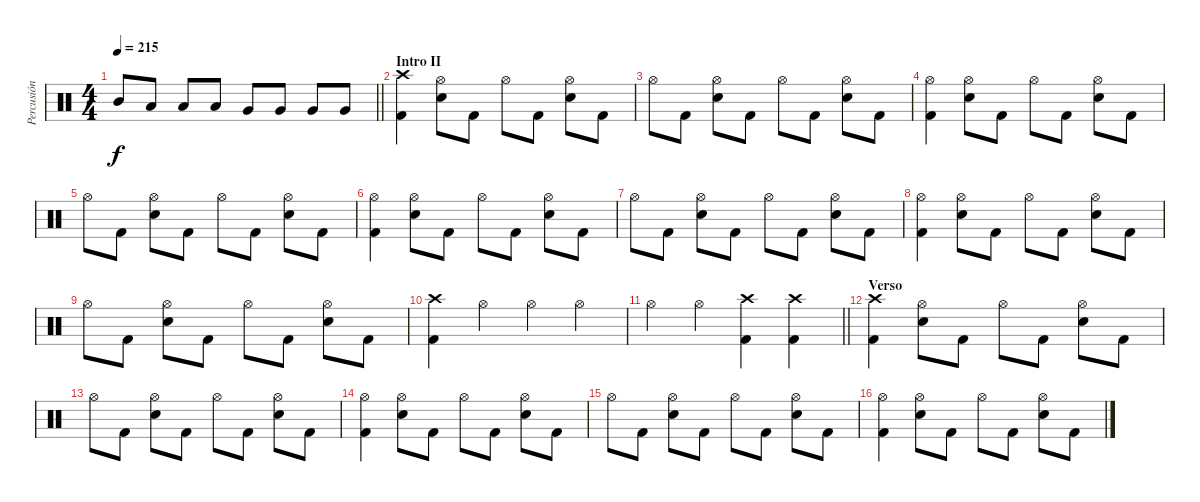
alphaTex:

\track ("Percusión" "Percusión") {instrument percussion}
\staff {score}
\articulation defaults
\ts (4 4)
\tempo 215
\clef neutral
\barLineRight lightlight
\ks c "Mid Tom (hit)".8{dy f} "Low Tom (hit)".8 "Low Tom (hit)".8 "Low Tom (hit)".8 "Very Low Tom (hit)".8 "Very Low Tom (hit)".8 "Very Low Tom (hit)".8 "Very Low Tom (hit)".8
|
\section ("" "Intro II")
("Crash high (hit)" "Kick (hit) 2").4 ("Hi-Hat (open)" "Electric Snare (hit)").8 "Kick (hit) 2".8 "Hi-Hat (open)".8 "Kick (hit) 2".8 ("Hi-Hat (open)" "Electric Snare (hit)").8 "Kick (hit) 2".8 |
"Hi-Hat (open)".8 "Kick (hit) 2".8 ("Hi-Hat (open)" "Electric Snare (hit)").8 "Kick (hit) 2".8 "Hi-Hat (open)".8 "Kick (hit) 2".8 ("Hi-Hat (open)" "Electric Snare (hit)").8 "Kick (hit) 2".8 |
("Hi-Hat (open)" "Kick (hit) 2").4 ("Hi-Hat (open)" "Electric Snare (hit)").8 "Kick (hit) 2".8 "Hi-Hat (open)".8 "Kick (hit) 2".8 ("Hi-Hat (open)" "Electric Snare (hit)").8 "Kick (hit) 2".8 |
"Hi-Hat (open)".8 "Kick (hit) 2".8 ("Hi-Hat (open)" "Electric Snare (hit)").8 "Kick (hit) 2".8 "Hi-Hat (open)".8 "Kick (hit) 2".8 ("Hi-Hat (open)" "Electric Snare (hit)").8 "Kick (hit) 2".8 |
("Hi-Hat (open)" "Kick (hit) 2").4 ("Hi-Hat (open)" "Electric Snare (hit)").8 "Kick (hit) 2".8 "Hi-Hat (open)".8 "Kick (hit) 2".8 ("Hi-Hat (open)" "Electric Snare (hit)").8 "Kick (hit) 2".8 |
"Hi-Hat (open)".8 "Kick (hit) 2".8 ("Hi-Hat (open)" "Electric Snare (hit)").8 "Kick (hit) 2".8 "Hi-Hat (open)".8 "Kick (hit) 2".8 ("Hi-Hat (open)" "Electric Snare (hit)").8 "Kick (hit) 2".8 |
("Hi-Hat (open)" "Kick (hit) 2").4 ("Hi-Hat (open)" "Electric Snare (hit)").8 "Kick (hit) 2".8 "Hi-Hat (open)".8 "Kick (hit) 2".8 ("Hi-Hat (open)" "Electric Snare (hit)").8 "Kick (hit) 2".8 |
"Hi-Hat (open)".8 "Kick (hit) 2".8 ("Hi-Hat (open)" "Electric Snare (hit)").8 "Kick (hit) 2".8 "Hi-Hat (open)".8 "Kick (hit) 2".8 ("Hi-Hat (open)" "Electric Snare (hit)").8 "Kick (hit) 2".8 |
("Crash high (hit)" "Kick (hit) 2").4 "Hi-Hat (open)".4 "Hi-Hat (open)".4 "Hi-Hat (open)".4 |
\barLineRight lightlight "Hi-Hat (open)".4 "Hi-Hat (open)".4
("Crash high (hit)" "Kick (hit) 2").4 ("Crash high (hit)" "Kick (hit) 2").4 |
\section ("" "Verso")
("Crash high (hit)" "Kick (hit) 2").4 ("Hi-Hat (open)" "Electric Snare (hit)").8 "Kick (hit) 2".8 "Hi-Hat (open)".8 "Kick (hit) 2".8 ("Hi-Hat (open)" "Electric Snare (hit)").8 "Kick (hit) 2".8 |
"Hi-Hat (open)".8 "Kick (hit) 2".8 ("Hi-Hat (open)" "Electric Snare (hit)").8 "Kick (hit) 2".8 "Hi-Hat (open)".8 "Kick (hit) 2".8 ("Hi-Hat (open)" "Electric Snare (hit)").8 "Kick (hit) 2".8 |
("Hi-Hat (open)" "Kick (hit) 2").4 ("Hi-Hat (open)" "Electric Snare (hit)").8 "Kick (hit) 2".8 "Hi-Hat (open)".8 "Kick (hit) 2".8 ("Hi-Hat (open)" "Electric Snare (hit)").8 "Kick (hit) 2".8 |
"Hi-Hat (open)".8 "Kick (hit) 2".8 ("Hi-Hat (open)" "Electric Snare (hit)").8 "Kick (hit) 2".8 "Hi-Hat (open)".8 "Kick (hit) 2".8 ("Hi-Hat (open)" "Electric Snare (hit)").8 "Kick (hit) 2".8 |
("Hi-Hat (open)" "Kick (hit) 2").4 ("Hi-Hat (open)" "Electric Snare (hit)").8 "Kick (hit) 2".8 "Hi-Hat (open)".8 "Kick (hit) 2".8 ("Hi-Hat (open)" "Electric Snare (hit)").8 "Kick (hit) 2".8
